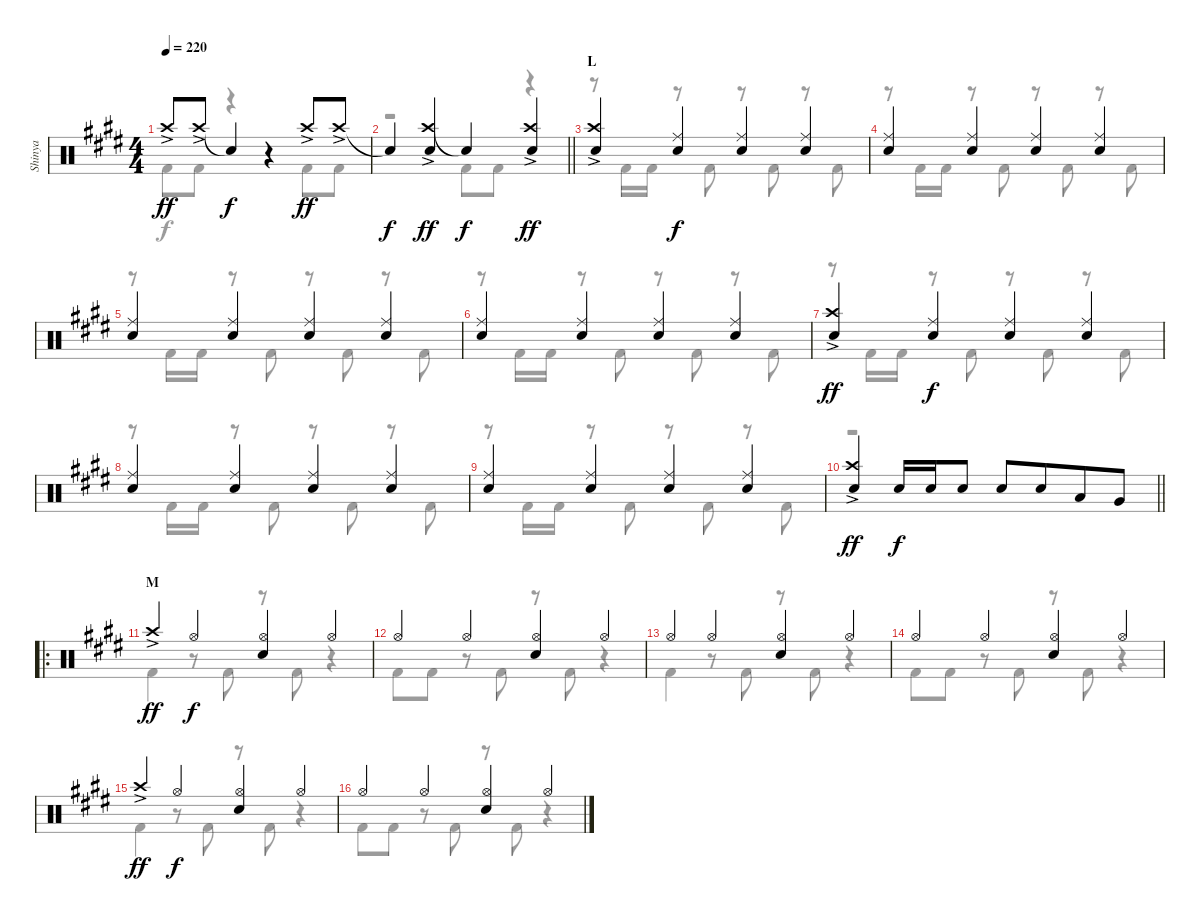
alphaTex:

\track ("Shinya" "Shinya") {instrument percussion}
\staff {score}
\articulation defaults
\voice
\ts (4 4)
\tempo 220
\clef neutral
\ks c#minor "Crash high (hit)"{ac}.8{dy ff} "Crash high (hit)"{ac}.8 "Snare (hit)"{t}.4{dy f}
r.4 "Crash high (hit)"{ac}.8{dy ff} "Crash high (hit)"{ac}.8 |
\barLineRight lightlight "Snare (hit)"{t}.4{dy f}
("Crash high (hit)"{ac} "Snare (hit) 2").4{dy ff} "Snare (hit)"{t}.4{dy f} ("Crash high (hit)"{ac} "Snare (hit) 2").4{dy ff} |
\section ("" "L")
("Crash high (hit)"{ac} "Snare (hit) 2").4 ("Ride (middle)" "Snare (hit) 2").4{dy f} ("Ride (middle)" "Snare (hit) 2").4 ("Ride (middle)" "Snare (hit) 2").4 |
("Ride (middle)" "Snare (hit) 2").4 ("Ride (middle)" "Snare (hit) 2").4 ("Ride (middle)" "Snare (hit) 2").4 ("Ride (middle)" "Snare (hit) 2").4 |
("Ride (middle)" "Snare (hit) 2").4 ("Ride (middle)" "Snare (hit) 2").4 ("Ride (middle)" "Snare (hit) 2").4 ("Ride (middle)" "Snare (hit) 2").4 |
("Ride (middle)" "Snare (hit) 2").4 ("Ride (middle)" "Snare (hit) 2").4 ("Ride (middle)" "Snare (hit) 2").4 ("Ride (middle)" "Snare (hit) 2").4 |
("Crash high (hit)"{ac} "Snare (hit) 2").4{dy ff} ("Ride (middle)" "Snare (hit) 2").4{dy f} ("Ride (middle)" "Snare (hit) 2").4 ("Ride (middle)" "Snare (hit) 2").4 |
("Ride (middle)" "Snare (hit) 2").4 ("Ride (middle)" "Snare (hit) 2").4 ("Ride (middle)" "Snare (hit) 2").4 ("Ride (middle)" "Snare (hit) 2").4 |
("Ride (middle)" "Snare (hit) 2").4 ("Ride (middle)" "Snare (hit) 2").4 ("Ride (middle)" "Snare (hit) 2").4 ("Ride (middle)" "Snare (hit) 2").4 |
\barLineRight lightlight
("Crash high (hit)"{ac} "Snare (hit) 2").4{dy ff} "Snare (hit) 2".16{dy f} "Snare (hit) 2".16 "Snare (hit) 2".8 "Snare (hit) 2".8 "Snare (hit) 2".8{beam merge} "Low Tom (hit)".8 "Very Low Tom (hit)".8 |
\ro
\section ("" "M")
"Crash high (hit)"{ac}.4{dy ff} "Hi-Hat (open)".4{dy f} ("Hi-Hat (open)" "Snare (hit) 2").4 "Hi-Hat (open)".4 |
"Hi-Hat (open)".4 "Hi-Hat (open)".4 ("Hi-Hat (open)" "Snare (hit) 2").4 "Hi-Hat (open)".4 |
"Hi-Hat (open)".4 "Hi-Hat (open)".4 ("Hi-Hat (open)" "Snare (hit) 2").4 "Hi-Hat (open)".4 |
"Hi-Hat (open)".4 "Hi-Hat (open)".4 ("Hi-Hat (open)" "Snare (hit) 2").4 "Hi-Hat (open)".4 |
"Crash high (hit)"{ac}.4{dy ff} "Hi-Hat (open)".4{dy f} ("Hi-Hat (open)" "Snare (hit) 2").4 "Hi-Hat (open)".4 |
"Hi-Hat (open)".4 "Hi-Hat (open)".4 ("Hi-Hat (open)" "Snare (hit) 2").4 "Hi-Hat (open)".4
\voice
\clef neutral
\ottava regular
\simile none
\ks c#minor "Kick (hit) 2".8{dy f} "Kick (hit) 2".8
r.4 r.4 "Kick (hit) 2".8 "Kick (hit) 2".8 |
\barLineRight lightlight
r.2 "Kick (hit) 2".8 "Kick (hit) 2".8 r.4 |
r.8 "Kick (hit) 2".16 "Kick (hit) 2".16 r.8 "Kick (hit) 2".8 r.8 "Kick (hit) 2".8 r.8 "Kick (hit) 2".8 |
r.8 "Kick (hit) 2".16 "Kick (hit) 2".16 r.8 "Kick (hit) 2".8 r.8 "Kick (hit) 2".8 r.8 "Kick (hit) 2".8 |
r.8 "Kick (hit) 2".16 "Kick (hit) 2".16 r.8 "Kick (hit) 2".8 r.8 "Kick (hit) 2".8 r.8 "Kick (hit) 2".8 |
r.8 "Kick (hit) 2".16 "Kick (hit) 2".16 r.8 "Kick (hit) 2".8 r.8 "Kick (hit) 2".8 r.8 "Kick (hit) 2".8 |
r.8 "Kick (hit) 2".16 "Kick (hit) 2".16 r.8 "Kick (hit) 2".8 r.8 "Kick (hit) 2".8 r.8 "Kick (hit) 2".8 |
r.8 "Kick (hit) 2".16 "Kick (hit) 2".16 r.8 "Kick (hit) 2".8 r.8 "Kick (hit) 2".8 r.8 "Kick (hit) 2".8 |
r.8 "Kick (hit) 2".16 "Kick (hit) 2".16 r.8 "Kick (hit) 2".8 r.8 "Kick (hit) 2".8 r.8 "Kick (hit) 2".8 |
\barLineRight lightlight
r.1 |
"Kick (hit) 2".4 r.8 "Kick (hit) 2".8 r.8 "Kick (hit) 2".8 r.4 |
"Kick (hit) 2".8 "Kick (hit) 2".8 r.8 "Kick (hit) 2".8 r.8 "Kick (hit) 2".8 r.4 |
"Kick (hit) 2".4 r.8 "Kick (hit) 2".8 r.8 "Kick (hit) 2".8 r.4 |
"Kick (hit) 2".8 "Kick (hit) 2".8 r.8 "Kick (hit) 2".8 r.8 "Kick (hit) 2".8 r.4 |
"Kick (hit) 2".4 r.8 "Kick (hit) 2".8 r.8 "Kick (hit) 2".8 r.4 |
"Kick (hit) 2".8 "Kick (hit) 2".8 r.8 "Kick (hit) 2".8 r.8 "Kick (hit) 2".8 r.4
